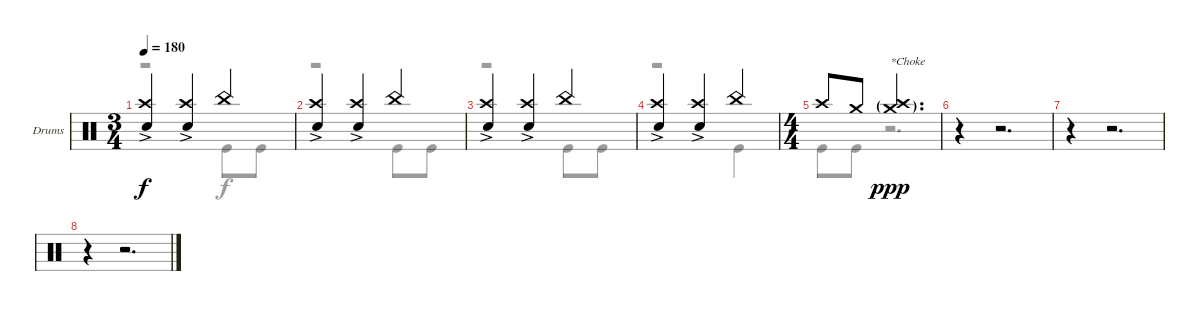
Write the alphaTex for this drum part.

\bracketExtendMode groupsimilarinstruments
\firstSystemTrackNameOrientation horizontal
\otherSystemsTrackNameOrientation horizontal
\track ("Drumkit" "Drums") {instrument percussion}
\staff {score}
\articulation defaults
\voice
\ts (3 4)
\beaming (8 2 2 2)
\tempo 180
\clef neutral
\ks c
("Crash high (hit)"{ac} "Snare (hit) 2").4{dy f} ("Crash high (hit)"{ac} "Snare (hit) 2").4 "China (hit)".4 |
("Crash high (hit)"{ac} "Snare (hit) 2").4 ("Crash high (hit)"{ac} "Snare (hit) 2").4 "China (hit)".4 |
("Crash high (hit)"{ac} "Snare (hit) 2").4 ("Crash high (hit)"{ac} "Snare (hit) 2").4 "China (hit)".4 |
("Crash high (hit)"{ac} "Snare (hit) 2").4 ("Crash high (hit)"{ac} "Snare (hit) 2").4 "China (hit)".4 |
\ts (4 4)
\beaming (8 2 2 2 2)
"Crash high (hit)".8 "Crash medium (hit)".8 ("Crash high (hit)"{g} "Crash medium (hit)"{g}).2{d txt "*Choke" dy ppp} |
r.4 r.2{d} |
r.4 r.2{d} |
r.4 r.2{d}
\voice
\clef neutral
\ottava regular
\simile none
\ks c
r.2{dy f} "Kick (hit)".8 "Kick (hit)".8 |
r.2 "Kick (hit)".8 "Kick (hit)".8 |
r.2 "Kick (hit)".8 "Kick (hit)".8 |
r.2 "Kick (hit)".4 |
"Kick (hit)".8 "Kick (hit)".8 r.2{d} |
|
|
